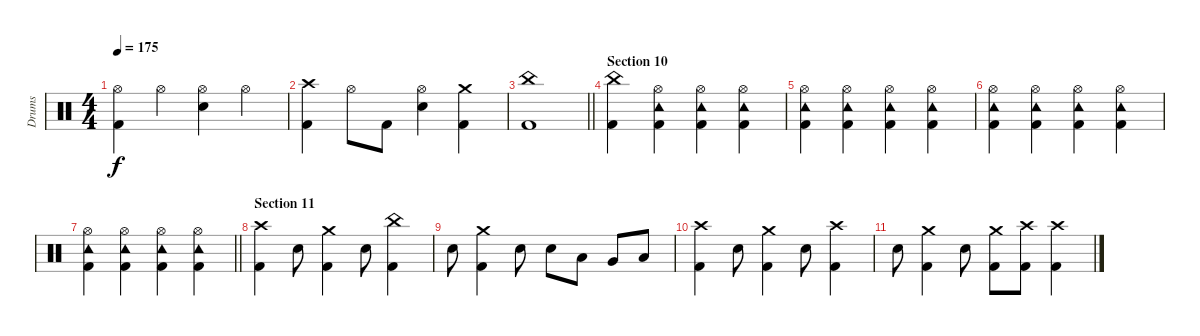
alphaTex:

\track ("Drums" "Drums") {instrument percussion}
\staff {score}
\articulation defaults
\ts (4 4)
\tempo 175
\clef neutral
\ks c
("Hi-Hat (open)" "Kick (hit) 2").4{dy f} "Hi-Hat (open)".4 ("Hi-Hat (open)" "Snare (hit) 2").4 "Hi-Hat (open)".4 |
("Crash high (hit)" "Kick (hit) 2").4 "Hi-Hat (open)".8 "Kick (hit) 2".8 ("Hi-Hat (open)" "Snare (hit) 2").4 ("Crash medium (hit)" "Kick (hit) 2").4 |
\barLineRight lightlight
("China (hit)" "Kick (hit) 2").1 |
\section ("" "Section 10")
("China (hit)" "Kick (hit) 2").4 ("Hi-Hat (open)" "Tambourine (hit)" "Kick (hit) 2").4 ("Hi-Hat (open)" "Tambourine (hit)" "Kick (hit) 2").4 ("Hi-Hat (open)" "Tambourine (hit)" "Kick (hit) 2").4 |
("Hi-Hat (open)" "Tambourine (hit)" "Kick (hit) 2").4 ("Hi-Hat (open)" "Tambourine (hit)" "Kick (hit) 2").4 ("Hi-Hat (open)" "Tambourine (hit)" "Kick (hit) 2").4 ("Hi-Hat (open)" "Tambourine (hit)" "Kick (hit) 2").4 |
("Hi-Hat (open)" "Tambourine (hit)" "Kick (hit) 2").4 ("Hi-Hat (open)" "Tambourine (hit)" "Kick (hit) 2").4 ("Hi-Hat (open)" "Tambourine (hit)" "Kick (hit) 2").4 ("Hi-Hat (open)" "Tambourine (hit)" "Kick (hit) 2").4 |
\barLineRight lightlight
("Hi-Hat (open)" "Tambourine (hit)" "Kick (hit) 2").4 ("Hi-Hat (open)" "Tambourine (hit)" "Kick (hit) 2").4 ("Hi-Hat (open)" "Tambourine (hit)" "Kick (hit) 2").4 ("Hi-Hat (open)" "Tambourine (hit)" "Kick (hit) 2").4 |
\section ("" "Section 11")
("Crash high (hit)" "Kick (hit) 2").4 "Snare (hit) 2".8 ("Crash medium (hit)" "Kick (hit) 2").4 "Snare (hit) 2".8 ("China (hit)" "Kick (hit) 2").4 |
"Snare (hit) 2".8 ("Crash medium (hit)" "Kick (hit) 2").4 "Snare (hit) 2".8 "Snare (hit) 2".8 "Low Tom (hit)".8 "Very Low Tom (hit)".8 "Low Floor Tom (hit)".8 |
("Crash high (hit)" "Kick (hit) 2").4 "Snare (hit) 2".8 ("Crash medium (hit)" "Kick (hit) 2").4 "Snare (hit) 2".8 ("Crash high (hit)" "Kick (hit) 2").4 |
"Snare (hit) 2".8 ("Crash medium (hit)" "Kick (hit) 2").4 "Snare (hit) 2".8 ("Crash medium (hit)" "Kick (hit) 2").8 ("Crash high (hit)" "Kick (hit) 2").8 ("Crash high (hit)" "Kick (hit) 2").4
